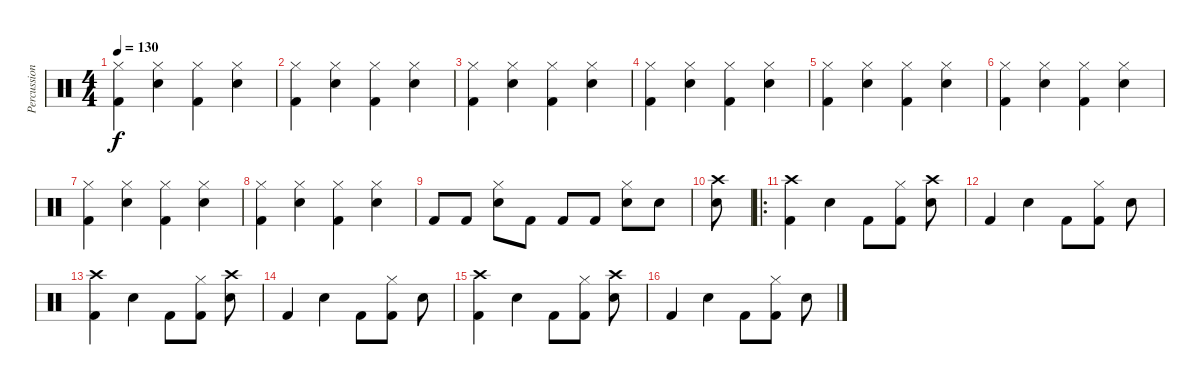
\track ("Percussion" "Percussion") {instrument percussion}
\staff {score}
\articulation defaults
\ts (4 4)
\tempo 130
\clef neutral
\ks c
("Kick (hit) 2" "Hi-Hat (closed)").4{dy f} ("Electric Snare (hit)" "Hi-Hat (closed)").4 ("Kick (hit) 2" "Hi-Hat (closed)").4 ("Electric Snare (hit)" "Hi-Hat (closed)").4 |
("Kick (hit) 2" "Hi-Hat (closed)").4 ("Electric Snare (hit)" "Hi-Hat (closed)").4 ("Kick (hit) 2" "Hi-Hat (closed)").4 ("Electric Snare (hit)" "Hi-Hat (closed)").4 |
("Kick (hit) 2" "Hi-Hat (closed)").4 ("Electric Snare (hit)" "Hi-Hat (closed)").4 ("Kick (hit) 2" "Hi-Hat (closed)").4 ("Electric Snare (hit)" "Hi-Hat (closed)").4 |
("Kick (hit) 2" "Hi-Hat (closed)").4 ("Electric Snare (hit)" "Hi-Hat (closed)").4 ("Kick (hit) 2" "Hi-Hat (closed)").4 ("Electric Snare (hit)" "Hi-Hat (closed)").4 |
("Kick (hit) 2" "Hi-Hat (closed)").4 ("Electric Snare (hit)" "Hi-Hat (closed)").4 ("Kick (hit) 2" "Hi-Hat (closed)").4 ("Electric Snare (hit)" "Hi-Hat (closed)").4 |
("Kick (hit) 2" "Hi-Hat (closed)").4 ("Electric Snare (hit)" "Hi-Hat (closed)").4 ("Kick (hit) 2" "Hi-Hat (closed)").4 ("Electric Snare (hit)" "Hi-Hat (closed)").4 |
("Kick (hit) 2" "Hi-Hat (closed)").4 ("Electric Snare (hit)" "Hi-Hat (closed)").4 ("Kick (hit) 2" "Hi-Hat (closed)").4 ("Electric Snare (hit)" "Hi-Hat (closed)").4 |
("Kick (hit) 2" "Hi-Hat (closed)").4 ("Electric Snare (hit)" "Hi-Hat (closed)").4 ("Kick (hit) 2" "Hi-Hat (closed)").4 ("Electric Snare (hit)" "Hi-Hat (closed)").4 |
"Kick (hit) 2".8 "Kick (hit) 2".8 ("Electric Snare (hit)" "Hi-Hat (closed)").8 "Kick (hit) 2".8 "Kick (hit) 2".8 "Kick (hit) 2".8 ("Electric Snare (hit)" "Hi-Hat (closed)").8 "Electric Snare (hit)".8 |
("Electric Snare (hit)" "Crash high (hit)").8 |
\ro
("Kick (hit) 2" "Crash high (hit)").4 "Snare (hit) 2".4 "Kick (hit) 2".8 ("Kick (hit) 2" "Hi-Hat (closed)").8 ("Snare (hit) 2" "Crash high (hit)").8 |
"Kick (hit) 2".4 "Snare (hit) 2".4 "Kick (hit) 2".8 ("Kick (hit) 2" "Hi-Hat (closed)").8 "Snare (hit) 2".8 |
("Kick (hit) 2" "Crash high (hit)").4 "Snare (hit) 2".4 "Kick (hit) 2".8 ("Kick (hit) 2" "Hi-Hat (closed)").8 ("Snare (hit) 2" "Crash high (hit)").8 |
"Kick (hit) 2".4 "Snare (hit) 2".4 "Kick (hit) 2".8 ("Kick (hit) 2" "Hi-Hat (closed)").8 "Snare (hit) 2".8 |
("Kick (hit) 2" "Crash high (hit)").4 "Snare (hit) 2".4 "Kick (hit) 2".8 ("Kick (hit) 2" "Hi-Hat (closed)").8 ("Snare (hit) 2" "Crash high (hit)").8 |
"Kick (hit) 2".4 "Snare (hit) 2".4 "Kick (hit) 2".8 ("Kick (hit) 2" "Hi-Hat (closed)").8 "Snare (hit) 2".8
